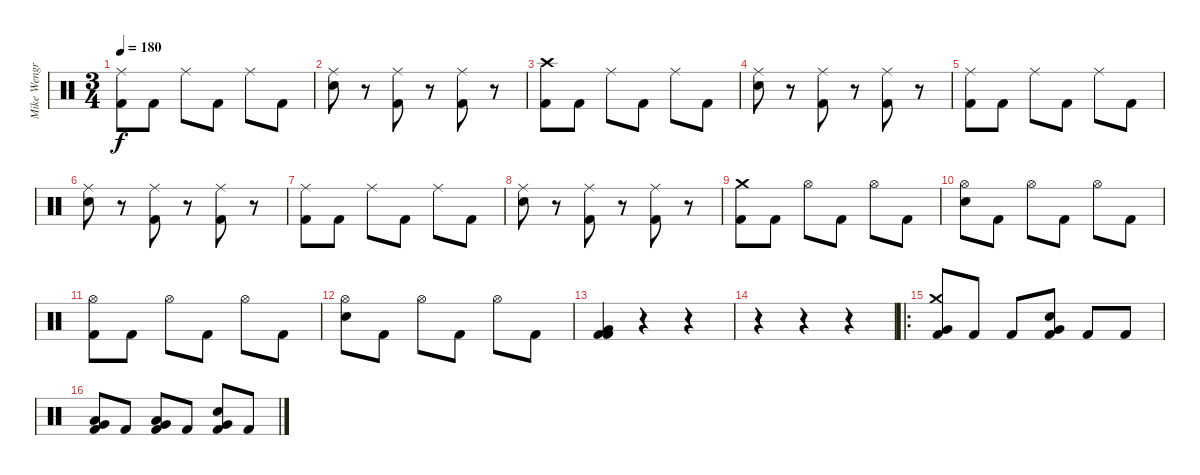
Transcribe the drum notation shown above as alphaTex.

\track ("Mike Wengren" "Mike Wengr") {instrument percussion}
\staff {score}
\articulation defaults
\ts (3 4)
\tempo 180
\clef neutral
\ks c
("Ride (middle)" "Kick (hit) 2").8{dy f} "Kick (hit) 2".8 "Ride (middle)".8 "Kick (hit) 2".8 "Ride (middle)".8 "Kick (hit) 2".8 |
("Ride (middle)" "Snare (hit) 2").8 r.8 ("Ride (middle)" "Kick (hit) 2").8 r.8 ("Ride (middle)" "Kick (hit) 2").8 r.8 |
("Crash high (hit)" "Kick (hit) 2").8 "Kick (hit) 2".8 "Ride (middle)".8 "Kick (hit) 2".8 "Ride (middle)".8 "Kick (hit) 2".8 |
("Ride (middle)" "Snare (hit) 2").8 r.8 ("Ride (middle)" "Kick (hit) 2").8 r.8 ("Ride (middle)" "Kick (hit) 2").8 r.8 |
("Ride (middle)" "Kick (hit) 2").8 "Kick (hit) 2".8 "Ride (middle)".8 "Kick (hit) 2".8 "Ride (middle)".8 "Kick (hit) 2".8 |
("Ride (middle)" "Snare (hit) 2").8 r.8 ("Ride (middle)" "Kick (hit) 2").8 r.8 ("Ride (middle)" "Kick (hit) 2").8 r.8 |
("Ride (middle)" "Kick (hit) 2").8 "Kick (hit) 2".8 "Ride (middle)".8 "Kick (hit) 2".8 "Ride (middle)".8 "Kick (hit) 2".8 |
("Ride (middle)" "Snare (hit) 2").8 r.8 ("Ride (middle)" "Kick (hit) 2").8 r.8 ("Ride (middle)" "Kick (hit) 2").8 r.8 |
("Crash medium (hit)" "Kick (hit) 2").8 "Kick (hit) 2".8 "Hi-Hat (open)".8 "Kick (hit) 2".8 "Hi-Hat (open)".8 "Kick (hit) 2".8 |
("Hi-Hat (open)" "Snare (hit) 2").8 "Kick (hit) 2".8 "Hi-Hat (open)".8 "Kick (hit) 2".8 "Hi-Hat (open)".8 "Kick (hit) 2".8 |
("Hi-Hat (open)" "Kick (hit) 2").8 "Kick (hit) 2".8 "Hi-Hat (open)".8 "Kick (hit) 2".8 "Hi-Hat (open)".8 "Kick (hit) 2".8 |
("Hi-Hat (open)" "Snare (hit) 2").8 "Kick (hit) 2".8 "Hi-Hat (open)".8 "Kick (hit) 2".8 "Hi-Hat (open)".8 "Kick (hit) 2".8 |
("Very Low Tom (hit)" "Kick (hit) 2" "Kick (hit) 2").4 r.4 r.4 |
r.4 r.4 r.4 |
\ro
("Crash medium (hit)" "Very Low Tom (hit)" "Kick (hit) 2").8 "Kick (hit) 2".8 "Kick (hit) 2".8 ("Very Low Tom (hit)" "Snare (hit) 2" "Kick (hit) 2").8 "Kick (hit) 2".8 "Kick (hit) 2".8 |
("Very Low Tom (hit)" "Low Floor Tom (hit)" "Kick (hit) 2").8 "Kick (hit) 2".8 ("Very Low Tom (hit)" "Low Floor Tom (hit)" "Kick (hit) 2").8 "Kick (hit) 2".8 ("Very Low Tom (hit)" "Snare (hit) 2" "Kick (hit) 2").8 "Kick (hit) 2".8
